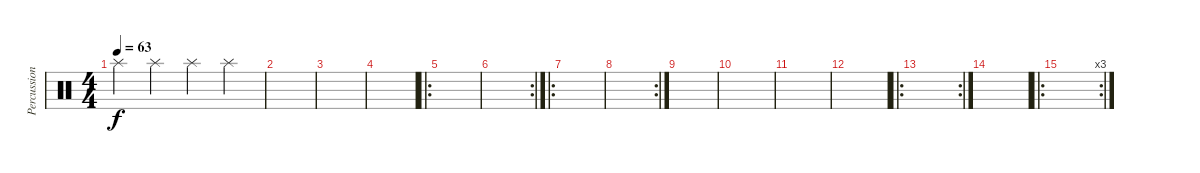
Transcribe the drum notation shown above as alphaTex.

\track ("Percussions" "Percussion") {instrument percussion}
\staff {score}
\articulation defaults
\ts (4 4)
\tempo 63
\clef neutral
\ks c "Splash (hit)".4{dy f} "Splash (hit)".4 "Splash (hit)".4 "Splash (hit)".4
|
|
|
|
\ro
|
\rc 2
|
\ro
|
\rc 2
|
|
|
|
|
\ro
\rc 2
|
|
\ro
\rc 3
